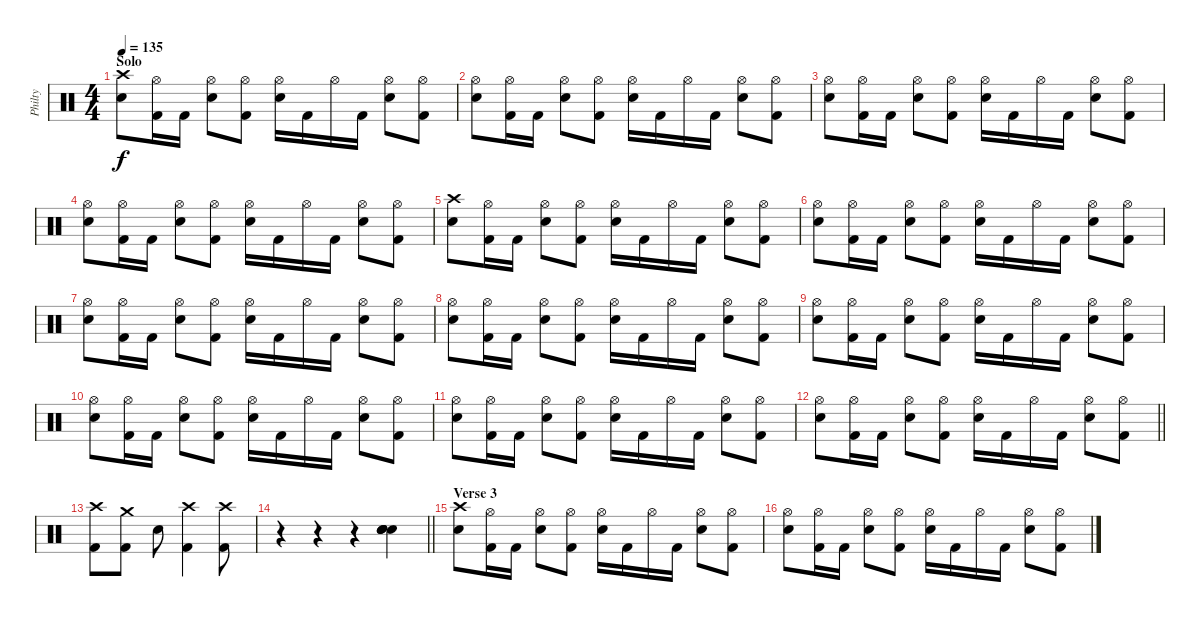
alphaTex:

\track ("Philty" "Philty") {instrument percussion}
\staff {score}
\articulation defaults
\ts (4 4)
\section ("" "Solo")
\tempo 135
\clef neutral
\ks c
("Crash high (hit)" "Electric Snare (hit)").8{dy f} ("Hi-Hat (open)" "Kick (hit) 2").16 "Kick (hit) 2".16 ("Hi-Hat (open)" "Electric Snare (hit)").8 ("Hi-Hat (open)" "Kick (hit) 2").8 ("Hi-Hat (open)" "Electric Snare (hit)").16 "Kick (hit) 2".16 "Hi-Hat (open)".16 "Kick (hit) 2".16 ("Hi-Hat (open)" "Electric Snare (hit)").8 ("Hi-Hat (open)" "Kick (hit) 2").8 |
("Hi-Hat (open)" "Electric Snare (hit)").8 ("Hi-Hat (open)" "Kick (hit) 2").16 "Kick (hit) 2".16 ("Hi-Hat (open)" "Electric Snare (hit)").8 ("Hi-Hat (open)" "Kick (hit) 2").8 ("Hi-Hat (open)" "Electric Snare (hit)").16 "Kick (hit) 2".16 "Hi-Hat (open)".16 "Kick (hit) 2".16 ("Hi-Hat (open)" "Electric Snare (hit)").8 ("Hi-Hat (open)" "Kick (hit) 2").8 |
("Hi-Hat (open)" "Electric Snare (hit)").8 ("Hi-Hat (open)" "Kick (hit) 2").16 "Kick (hit) 2".16 ("Hi-Hat (open)" "Electric Snare (hit)").8 ("Hi-Hat (open)" "Kick (hit) 2").8 ("Hi-Hat (open)" "Electric Snare (hit)").16 "Kick (hit) 2".16 "Hi-Hat (open)".16 "Kick (hit) 2".16 ("Hi-Hat (open)" "Electric Snare (hit)").8 ("Hi-Hat (open)" "Kick (hit) 2").8 |
("Hi-Hat (open)" "Electric Snare (hit)").8 ("Hi-Hat (open)" "Kick (hit) 2").16 "Kick (hit) 2".16 ("Hi-Hat (open)" "Electric Snare (hit)").8 ("Hi-Hat (open)" "Kick (hit) 2").8 ("Hi-Hat (open)" "Electric Snare (hit)").16 "Kick (hit) 2".16 "Hi-Hat (open)".16 "Kick (hit) 2".16 ("Hi-Hat (open)" "Electric Snare (hit)").8 ("Hi-Hat (open)" "Kick (hit) 2").8 |
("Crash high (hit)" "Electric Snare (hit)").8 ("Hi-Hat (open)" "Kick (hit) 2").16 "Kick (hit) 2".16 ("Hi-Hat (open)" "Electric Snare (hit)").8 ("Hi-Hat (open)" "Kick (hit) 2").8 ("Hi-Hat (open)" "Electric Snare (hit)").16 "Kick (hit) 2".16 "Hi-Hat (open)".16 "Kick (hit) 2".16 ("Hi-Hat (open)" "Electric Snare (hit)").8 ("Hi-Hat (open)" "Kick (hit) 2").8 |
("Hi-Hat (open)" "Electric Snare (hit)").8 ("Hi-Hat (open)" "Kick (hit) 2").16 "Kick (hit) 2".16 ("Hi-Hat (open)" "Electric Snare (hit)").8 ("Hi-Hat (open)" "Kick (hit) 2").8 ("Hi-Hat (open)" "Electric Snare (hit)").16 "Kick (hit) 2".16 "Hi-Hat (open)".16 "Kick (hit) 2".16 ("Hi-Hat (open)" "Electric Snare (hit)").8 ("Hi-Hat (open)" "Kick (hit) 2").8 |
("Hi-Hat (open)" "Electric Snare (hit)").8 ("Hi-Hat (open)" "Kick (hit) 2").16 "Kick (hit) 2".16 ("Hi-Hat (open)" "Electric Snare (hit)").8 ("Hi-Hat (open)" "Kick (hit) 2").8 ("Hi-Hat (open)" "Electric Snare (hit)").16 "Kick (hit) 2".16 "Hi-Hat (open)".16 "Kick (hit) 2".16 ("Hi-Hat (open)" "Electric Snare (hit)").8 ("Hi-Hat (open)" "Kick (hit) 2").8 |
("Hi-Hat (open)" "Electric Snare (hit)").8 ("Hi-Hat (open)" "Kick (hit) 2").16 "Kick (hit) 2".16 ("Hi-Hat (open)" "Electric Snare (hit)").8 ("Hi-Hat (open)" "Kick (hit) 2").8 ("Hi-Hat (open)" "Electric Snare (hit)").16 "Kick (hit) 2".16 "Hi-Hat (open)".16 "Kick (hit) 2".16 ("Hi-Hat (open)" "Electric Snare (hit)").8 ("Hi-Hat (open)" "Kick (hit) 2").8 |
("Hi-Hat (open)" "Electric Snare (hit)").8 ("Hi-Hat (open)" "Kick (hit) 2").16 "Kick (hit) 2".16 ("Hi-Hat (open)" "Electric Snare (hit)").8 ("Hi-Hat (open)" "Kick (hit) 2").8 ("Hi-Hat (open)" "Electric Snare (hit)").16 "Kick (hit) 2".16 "Hi-Hat (open)".16 "Kick (hit) 2".16 ("Hi-Hat (open)" "Electric Snare (hit)").8 ("Hi-Hat (open)" "Kick (hit) 2").8 |
("Hi-Hat (open)" "Electric Snare (hit)").8 ("Hi-Hat (open)" "Kick (hit) 2").16 "Kick (hit) 2".16 ("Hi-Hat (open)" "Electric Snare (hit)").8 ("Hi-Hat (open)" "Kick (hit) 2").8 ("Hi-Hat (open)" "Electric Snare (hit)").16 "Kick (hit) 2".16 "Hi-Hat (open)".16 "Kick (hit) 2".16 ("Hi-Hat (open)" "Electric Snare (hit)").8 ("Hi-Hat (open)" "Kick (hit) 2").8 |
("Hi-Hat (open)" "Electric Snare (hit)").8 ("Hi-Hat (open)" "Kick (hit) 2").16 "Kick (hit) 2".16 ("Hi-Hat (open)" "Electric Snare (hit)").8 ("Hi-Hat (open)" "Kick (hit) 2").8 ("Hi-Hat (open)" "Electric Snare (hit)").16 "Kick (hit) 2".16 "Hi-Hat (open)".16 "Kick (hit) 2".16 ("Hi-Hat (open)" "Electric Snare (hit)").8 ("Hi-Hat (open)" "Kick (hit) 2").8 |
\barLineRight lightlight
("Hi-Hat (open)" "Electric Snare (hit)").8 ("Hi-Hat (open)" "Kick (hit) 2").16 "Kick (hit) 2".16 ("Hi-Hat (open)" "Electric Snare (hit)").8 ("Hi-Hat (open)" "Kick (hit) 2").8 ("Hi-Hat (open)" "Electric Snare (hit)").16 "Kick (hit) 2".16 "Hi-Hat (open)".16 "Kick (hit) 2".16 ("Hi-Hat (open)" "Electric Snare (hit)").8 ("Hi-Hat (open)" "Kick (hit) 2").8 |
("Crash high (hit)" "Kick (hit) 2").8 ("Crash medium (hit)" "Kick (hit) 2").8 "Electric Snare (hit)".8 ("Crash high (hit)" "Kick (hit) 2").4 ("Crash high (hit)" "Kick (hit) 2").8 |
\barLineRight lightlight
r.4 r.4 r.4 ("Electric Snare (hit)" "Electric Snare (hit)" "Electric Snare (hit)" "Snare (hit) 2").4 |
\section ("" "Verse 3")
("Crash high (hit)" "Electric Snare (hit)").8 ("Hi-Hat (open)" "Kick (hit) 2").16 "Kick (hit) 2".16 ("Hi-Hat (open)" "Electric Snare (hit)").8 ("Hi-Hat (open)" "Kick (hit) 2").8 ("Hi-Hat (open)" "Electric Snare (hit)").16 "Kick (hit) 2".16 "Hi-Hat (open)".16 "Kick (hit) 2".16 ("Hi-Hat (open)" "Electric Snare (hit)").8 ("Hi-Hat (open)" "Kick (hit) 2").8 |
("Hi-Hat (open)" "Electric Snare (hit)").8 ("Hi-Hat (open)" "Kick (hit) 2").16 "Kick (hit) 2".16 ("Hi-Hat (open)" "Electric Snare (hit)").8 ("Hi-Hat (open)" "Kick (hit) 2").8 ("Hi-Hat (open)" "Electric Snare (hit)").16 "Kick (hit) 2".16 "Hi-Hat (open)".16 "Kick (hit) 2".16 ("Hi-Hat (open)" "Electric Snare (hit)").8 ("Hi-Hat (open)" "Kick (hit) 2").8
